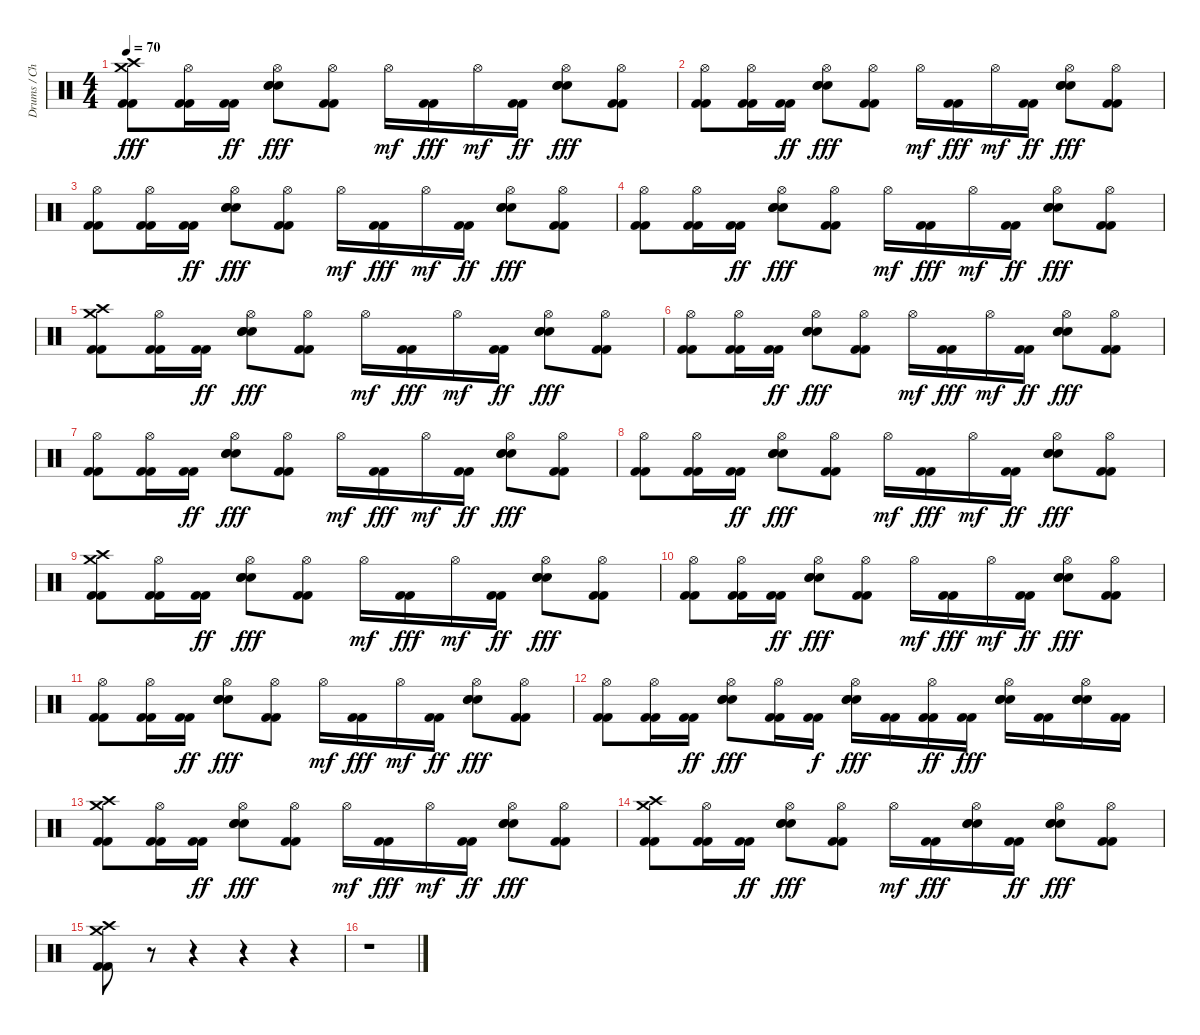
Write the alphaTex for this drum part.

\track ("Drums / Christoph Schneider" "Drums / Ch") {instrument percussion}
\staff {score}
\articulation defaults
\ts (4 4)
\tempo 70
\clef neutral
\ks c
("Crash medium (hit)" "Crash high (hit)" "Kick (hit) 2" "Kick (hit) 2").8{dy fff} ("Hi-Hat (open)" "Kick (hit) 2" "Kick (hit) 2").16 ("Kick (hit) 2" "Kick (hit) 2").16{dy ff} ("Hi-Hat (open)" "Snare (hit) 2" "Snare (hit) 2" "Snare (hit) 2").8{dy fff} ("Hi-Hat (open)" "Kick (hit) 2" "Kick (hit) 2").8 "Hi-Hat (open)".16{dy mf} ("Kick (hit) 2" "Kick (hit) 2").16{dy fff} "Hi-Hat (open)".16{dy mf} ("Kick (hit) 2" "Kick (hit) 2").16{dy ff} ("Hi-Hat (open)" "Snare (hit) 2" "Snare (hit) 2" "Snare (hit) 2").8{dy fff} ("Hi-Hat (open)" "Kick (hit) 2" "Kick (hit) 2").8 |
("Hi-Hat (open)" "Kick (hit) 2" "Kick (hit) 2").8 ("Hi-Hat (open)" "Kick (hit) 2" "Kick (hit) 2").16 ("Kick (hit) 2" "Kick (hit) 2").16{dy ff} ("Hi-Hat (open)" "Snare (hit) 2" "Snare (hit) 2" "Snare (hit) 2").8{dy fff} ("Hi-Hat (open)" "Kick (hit) 2" "Kick (hit) 2").8 "Hi-Hat (open)".16{dy mf} ("Kick (hit) 2" "Kick (hit) 2").16{dy fff} "Hi-Hat (open)".16{dy mf} ("Kick (hit) 2" "Kick (hit) 2").16{dy ff} ("Hi-Hat (open)" "Snare (hit) 2" "Snare (hit) 2" "Snare (hit) 2").8{dy fff} ("Hi-Hat (open)" "Kick (hit) 2" "Kick (hit) 2").8 |
("Hi-Hat (open)" "Kick (hit) 2" "Kick (hit) 2").8 ("Hi-Hat (open)" "Kick (hit) 2" "Kick (hit) 2").16 ("Kick (hit) 2" "Kick (hit) 2").16{dy ff} ("Hi-Hat (open)" "Snare (hit) 2" "Snare (hit) 2" "Snare (hit) 2").8{dy fff} ("Hi-Hat (open)" "Kick (hit) 2" "Kick (hit) 2").8 "Hi-Hat (open)".16{dy mf} ("Kick (hit) 2" "Kick (hit) 2").16{dy fff} "Hi-Hat (open)".16{dy mf} ("Kick (hit) 2" "Kick (hit) 2").16{dy ff} ("Hi-Hat (open)" "Snare (hit) 2" "Snare (hit) 2" "Snare (hit) 2").8{dy fff} ("Hi-Hat (open)" "Kick (hit) 2" "Kick (hit) 2").8 |
("Hi-Hat (open)" "Kick (hit) 2" "Kick (hit) 2").8 ("Hi-Hat (open)" "Kick (hit) 2" "Kick (hit) 2").16 ("Kick (hit) 2" "Kick (hit) 2").16{dy ff} ("Hi-Hat (open)" "Snare (hit) 2" "Snare (hit) 2" "Snare (hit) 2").8{dy fff} ("Hi-Hat (open)" "Kick (hit) 2" "Kick (hit) 2").8 "Hi-Hat (open)".16{dy mf} ("Kick (hit) 2" "Kick (hit) 2").16{dy fff} "Hi-Hat (open)".16{dy mf} ("Kick (hit) 2" "Kick (hit) 2").16{dy ff} ("Hi-Hat (open)" "Snare (hit) 2" "Snare (hit) 2" "Snare (hit) 2").8{dy fff} ("Hi-Hat (open)" "Kick (hit) 2" "Kick (hit) 2").8 |
("Crash medium (hit)" "Crash high (hit)" "Kick (hit) 2" "Kick (hit) 2").8 ("Hi-Hat (open)" "Kick (hit) 2" "Kick (hit) 2").16 ("Kick (hit) 2" "Kick (hit) 2").16{dy ff} ("Hi-Hat (open)" "Snare (hit) 2" "Snare (hit) 2" "Snare (hit) 2").8{dy fff} ("Hi-Hat (open)" "Kick (hit) 2" "Kick (hit) 2").8 "Hi-Hat (open)".16{dy mf} ("Kick (hit) 2" "Kick (hit) 2").16{dy fff} "Hi-Hat (open)".16{dy mf} ("Kick (hit) 2" "Kick (hit) 2").16{dy ff} ("Hi-Hat (open)" "Snare (hit) 2" "Snare (hit) 2" "Snare (hit) 2").8{dy fff} ("Hi-Hat (open)" "Kick (hit) 2" "Kick (hit) 2").8 |
("Hi-Hat (open)" "Kick (hit) 2" "Kick (hit) 2").8 ("Hi-Hat (open)" "Kick (hit) 2" "Kick (hit) 2").16 ("Kick (hit) 2" "Kick (hit) 2").16{dy ff} ("Hi-Hat (open)" "Snare (hit) 2" "Snare (hit) 2" "Snare (hit) 2").8{dy fff} ("Hi-Hat (open)" "Kick (hit) 2" "Kick (hit) 2").8 "Hi-Hat (open)".16{dy mf} ("Kick (hit) 2" "Kick (hit) 2").16{dy fff} "Hi-Hat (open)".16{dy mf} ("Kick (hit) 2" "Kick (hit) 2").16{dy ff} ("Hi-Hat (open)" "Snare (hit) 2" "Snare (hit) 2" "Snare (hit) 2").8{dy fff} ("Hi-Hat (open)" "Kick (hit) 2" "Kick (hit) 2").8 |
("Hi-Hat (open)" "Kick (hit) 2" "Kick (hit) 2").8 ("Hi-Hat (open)" "Kick (hit) 2" "Kick (hit) 2").16 ("Kick (hit) 2" "Kick (hit) 2").16{dy ff} ("Hi-Hat (open)" "Snare (hit) 2" "Snare (hit) 2" "Snare (hit) 2").8{dy fff} ("Hi-Hat (open)" "Kick (hit) 2" "Kick (hit) 2").8 "Hi-Hat (open)".16{dy mf} ("Kick (hit) 2" "Kick (hit) 2").16{dy fff} "Hi-Hat (open)".16{dy mf} ("Kick (hit) 2" "Kick (hit) 2").16{dy ff} ("Hi-Hat (open)" "Snare (hit) 2" "Snare (hit) 2" "Snare (hit) 2").8{dy fff} ("Hi-Hat (open)" "Kick (hit) 2" "Kick (hit) 2").8 |
("Hi-Hat (open)" "Kick (hit) 2" "Kick (hit) 2").8 ("Hi-Hat (open)" "Kick (hit) 2" "Kick (hit) 2").16 ("Kick (hit) 2" "Kick (hit) 2").16{dy ff} ("Hi-Hat (open)" "Snare (hit) 2" "Snare (hit) 2" "Snare (hit) 2").8{dy fff} ("Hi-Hat (open)" "Kick (hit) 2" "Kick (hit) 2").8 "Hi-Hat (open)".16{dy mf} ("Kick (hit) 2" "Kick (hit) 2").16{dy fff} "Hi-Hat (open)".16{dy mf} ("Kick (hit) 2" "Kick (hit) 2").16{dy ff} ("Hi-Hat (open)" "Snare (hit) 2" "Snare (hit) 2" "Snare (hit) 2").8{dy fff} ("Hi-Hat (open)" "Kick (hit) 2" "Kick (hit) 2").8 |
("Crash medium (hit)" "Crash high (hit)" "Kick (hit) 2" "Kick (hit) 2").8 ("Hi-Hat (open)" "Kick (hit) 2" "Kick (hit) 2").16 ("Kick (hit) 2" "Kick (hit) 2").16{dy ff} ("Hi-Hat (open)" "Snare (hit) 2" "Snare (hit) 2" "Snare (hit) 2").8{dy fff} ("Hi-Hat (open)" "Kick (hit) 2" "Kick (hit) 2").8 "Hi-Hat (open)".16{dy mf} ("Kick (hit) 2" "Kick (hit) 2").16{dy fff} "Hi-Hat (open)".16{dy mf} ("Kick (hit) 2" "Kick (hit) 2").16{dy ff} ("Hi-Hat (open)" "Snare (hit) 2" "Snare (hit) 2" "Snare (hit) 2").8{dy fff} ("Hi-Hat (open)" "Kick (hit) 2" "Kick (hit) 2").8 |
("Hi-Hat (open)" "Kick (hit) 2" "Kick (hit) 2").8 ("Hi-Hat (open)" "Kick (hit) 2" "Kick (hit) 2").16 ("Kick (hit) 2" "Kick (hit) 2").16{dy ff} ("Hi-Hat (open)" "Snare (hit) 2" "Snare (hit) 2" "Snare (hit) 2").8{dy fff} ("Hi-Hat (open)" "Kick (hit) 2" "Kick (hit) 2").8 "Hi-Hat (open)".16{dy mf} ("Kick (hit) 2" "Kick (hit) 2").16{dy fff} "Hi-Hat (open)".16{dy mf} ("Kick (hit) 2" "Kick (hit) 2").16{dy ff} ("Hi-Hat (open)" "Snare (hit) 2" "Snare (hit) 2" "Snare (hit) 2").8{dy fff} ("Hi-Hat (open)" "Kick (hit) 2" "Kick (hit) 2").8 |
("Hi-Hat (open)" "Kick (hit) 2" "Kick (hit) 2").8 ("Hi-Hat (open)" "Kick (hit) 2" "Kick (hit) 2").16 ("Kick (hit) 2" "Kick (hit) 2").16{dy ff} ("Hi-Hat (open)" "Snare (hit) 2" "Snare (hit) 2" "Snare (hit) 2").8{dy fff} ("Hi-Hat (open)" "Kick (hit) 2" "Kick (hit) 2").8 "Hi-Hat (open)".16{dy mf} ("Kick (hit) 2" "Kick (hit) 2").16{dy fff} "Hi-Hat (open)".16{dy mf} ("Kick (hit) 2" "Kick (hit) 2").16{dy ff} ("Hi-Hat (open)" "Snare (hit) 2" "Snare (hit) 2" "Snare (hit) 2").8{dy fff} ("Hi-Hat (open)" "Kick (hit) 2" "Kick (hit) 2").8 |
("Hi-Hat (open)" "Kick (hit) 2" "Kick (hit) 2").8 ("Hi-Hat (open)" "Kick (hit) 2" "Kick (hit) 2").16 ("Kick (hit) 2" "Kick (hit) 2").16{dy ff} ("Hi-Hat (open)" "Snare (hit) 2" "Snare (hit) 2" "Snare (hit) 2").8{dy fff} ("Hi-Hat (open)" "Kick (hit) 2" "Kick (hit) 2").16 ("Kick (hit) 2" "Kick (hit) 2").16{dy f} ("Hi-Hat (open)" "Snare (hit) 2" "Snare (hit) 2" "Snare (hit) 2").16{dy fff} ("Kick (hit) 2" "Kick (hit) 2").16 ("Hi-Hat (open)" "Kick (hit) 2" "Kick (hit) 2").16{dy ff} ("Kick (hit) 2" "Kick (hit) 2").16{dy fff} ("Hi-Hat (open)" "Snare (hit) 2" "Snare (hit) 2" "Snare (hit) 2").16 ("Kick (hit) 2" "Kick (hit) 2").16 ("Hi-Hat (open)" "Snare (hit) 2" "Snare (hit) 2" "Snare (hit) 2").16 ("Kick (hit) 2" "Kick (hit) 2").16 |
("Crash medium (hit)" "Crash high (hit)" "Kick (hit) 2" "Kick (hit) 2").8 ("Hi-Hat (open)" "Kick (hit) 2" "Kick (hit) 2").16 ("Kick (hit) 2" "Kick (hit) 2").16{dy ff} ("Hi-Hat (open)" "Snare (hit) 2" "Snare (hit) 2" "Snare (hit) 2").8{dy fff} ("Hi-Hat (open)" "Kick (hit) 2" "Kick (hit) 2").8 "Hi-Hat (open)".16{dy mf} ("Kick (hit) 2" "Kick (hit) 2").16{dy fff} "Hi-Hat (open)".16{dy mf} ("Kick (hit) 2" "Kick (hit) 2").16{dy ff} ("Hi-Hat (open)" "Snare (hit) 2" "Snare (hit) 2" "Snare (hit) 2").8{dy fff} ("Hi-Hat (open)" "Kick (hit) 2" "Kick (hit) 2").8 |
("Crash medium (hit)" "Crash high (hit)" "Kick (hit) 2" "Kick (hit) 2").8 ("Hi-Hat (open)" "Kick (hit) 2" "Kick (hit) 2").16 ("Kick (hit) 2" "Kick (hit) 2").16{dy ff} ("Hi-Hat (open)" "Snare (hit) 2" "Snare (hit) 2" "Snare (hit) 2").8{dy fff} ("Hi-Hat (open)" "Kick (hit) 2" "Kick (hit) 2").8 "Hi-Hat (open)".16{dy mf} ("Kick (hit) 2" "Kick (hit) 2").16{dy fff} ("Hi-Hat (open)" "Snare (hit) 2" "Snare (hit) 2" "Snare (hit) 2").16 ("Kick (hit) 2" "Kick (hit) 2").16{dy ff} ("Hi-Hat (open)" "Snare (hit) 2" "Snare (hit) 2" "Snare (hit) 2").8{dy fff} ("Hi-Hat (open)" "Kick (hit) 2" "Kick (hit) 2").8 |
("Crash medium (hit)" "Crash high (hit)" "Kick (hit) 2" "Kick (hit) 2").8{volume 4} r.8 r.4 r.4 r.4 |
r.1
